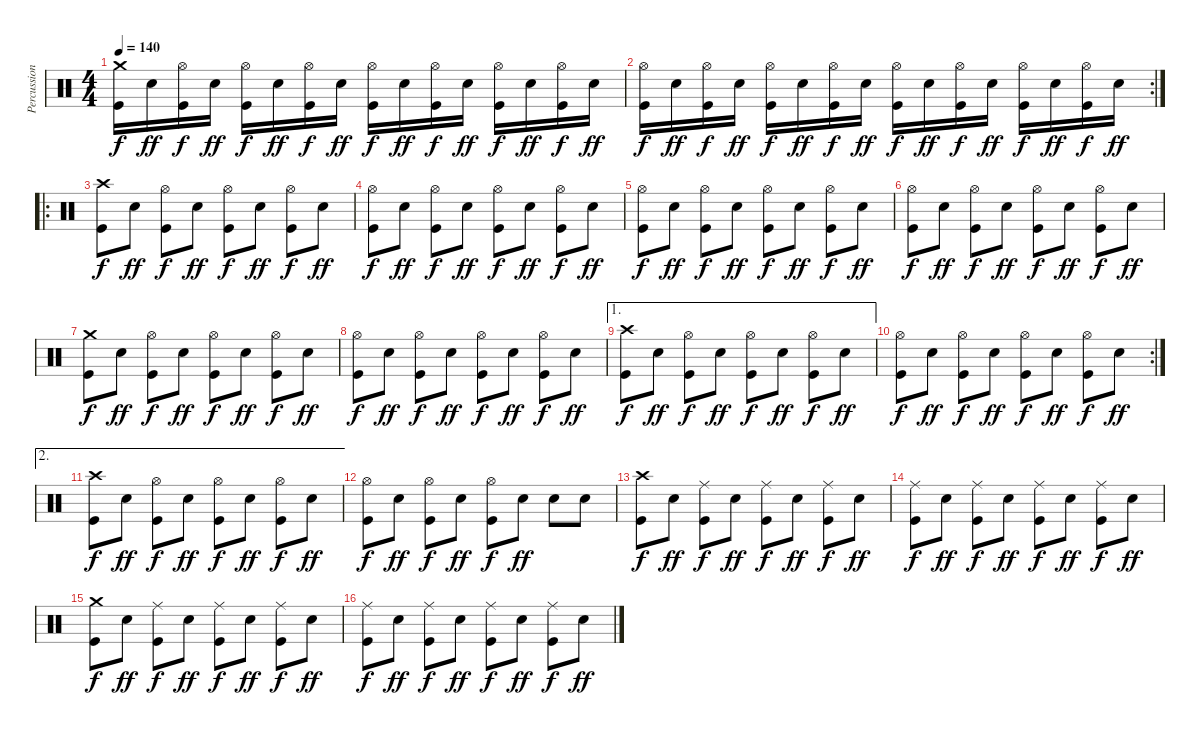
\track ("Percussions" "Percussion") {instrument percussion}
\staff {score}
\articulation defaults
\ts (4 4)
\tempo 140
\clef neutral
\ks c
("Crash medium (hit)" "Kick (hit)").16{dy f} "Snare (hit) 2".16{dy ff} ("Hi-Hat (open)" "Kick (hit)").16{dy f} "Snare (hit) 2".16{dy ff} ("Hi-Hat (open)" "Kick (hit)").16{dy f} "Snare (hit) 2".16{dy ff} ("Hi-Hat (open)" "Kick (hit)").16{dy f} "Snare (hit) 2".16{dy ff} ("Hi-Hat (open)" "Kick (hit)").16{dy f} "Snare (hit) 2".16{dy ff} ("Hi-Hat (open)" "Kick (hit)").16{dy f} "Snare (hit) 2".16{dy ff} ("Hi-Hat (open)" "Kick (hit)").16{dy f} "Snare (hit) 2".16{dy ff} ("Hi-Hat (open)" "Kick (hit)").16{dy f} "Snare (hit) 2".16{dy ff} |
\rc 2
("Hi-Hat (open)" "Kick (hit)").16{dy f} "Snare (hit) 2".16{dy ff} ("Hi-Hat (open)" "Kick (hit)").16{dy f} "Snare (hit) 2".16{dy ff} ("Hi-Hat (open)" "Kick (hit)").16{dy f} "Snare (hit) 2".16{dy ff} ("Hi-Hat (open)" "Kick (hit)").16{dy f} "Snare (hit) 2".16{dy ff} ("Hi-Hat (open)" "Kick (hit)").16{dy f} "Snare (hit) 2".16{dy ff} ("Hi-Hat (open)" "Kick (hit)").16{dy f} "Snare (hit) 2".16{dy ff} ("Hi-Hat (open)" "Kick (hit)").16{dy f} "Snare (hit) 2".16{dy ff} ("Hi-Hat (open)" "Kick (hit)").16{dy f} "Snare (hit) 2".16{dy ff} |
\ro
("Crash high (hit)" "Kick (hit)").8{dy f} "Snare (hit) 2".8{dy ff} ("Hi-Hat (open)" "Kick (hit)").8{dy f} "Snare (hit) 2".8{dy ff} ("Hi-Hat (open)" "Kick (hit)").8{dy f} "Snare (hit) 2".8{dy ff} ("Hi-Hat (open)" "Kick (hit)").8{dy f} "Snare (hit) 2".8{dy ff} |
("Hi-Hat (open)" "Kick (hit)").8{dy f} "Snare (hit) 2".8{dy ff} ("Hi-Hat (open)" "Kick (hit)").8{dy f} "Snare (hit) 2".8{dy ff} ("Hi-Hat (open)" "Kick (hit)").8{dy f} "Snare (hit) 2".8{dy ff} ("Hi-Hat (open)" "Kick (hit)").8{dy f} "Snare (hit) 2".8{dy ff} |
("Hi-Hat (open)" "Kick (hit)").8{dy f} "Snare (hit) 2".8{dy ff} ("Hi-Hat (open)" "Kick (hit)").8{dy f} "Snare (hit) 2".8{dy ff} ("Hi-Hat (open)" "Kick (hit)").8{dy f} "Snare (hit) 2".8{dy ff} ("Hi-Hat (open)" "Kick (hit)").8{dy f} "Snare (hit) 2".8{dy ff} |
("Hi-Hat (open)" "Kick (hit)").8{dy f} "Snare (hit) 2".8{dy ff} ("Hi-Hat (open)" "Kick (hit)").8{dy f} "Snare (hit) 2".8{dy ff} ("Hi-Hat (open)" "Kick (hit)").8{dy f} "Snare (hit) 2".8{dy ff} ("Hi-Hat (open)" "Kick (hit)").8{dy f} "Snare (hit) 2".8{dy ff} |
("Crash medium (hit)" "Kick (hit)").8{dy f} "Snare (hit) 2".8{dy ff} ("Hi-Hat (open)" "Kick (hit)").8{dy f} "Snare (hit) 2".8{dy ff} ("Hi-Hat (open)" "Kick (hit)").8{dy f} "Snare (hit) 2".8{dy ff} ("Hi-Hat (open)" "Kick (hit)").8{dy f} "Snare (hit) 2".8{dy ff} |
("Hi-Hat (open)" "Kick (hit)").8{dy f} "Snare (hit) 2".8{dy ff} ("Hi-Hat (open)" "Kick (hit)").8{dy f} "Snare (hit) 2".8{dy ff} ("Hi-Hat (open)" "Kick (hit)").8{dy f} "Snare (hit) 2".8{dy ff} ("Hi-Hat (open)" "Kick (hit)").8{dy f} "Snare (hit) 2".8{dy ff} |
\ae 1
("Crash high (hit)" "Kick (hit)").8{dy f} "Snare (hit) 2".8{dy ff} ("Hi-Hat (open)" "Kick (hit)").8{dy f} "Snare (hit) 2".8{dy ff} ("Hi-Hat (open)" "Kick (hit)").8{dy f} "Snare (hit) 2".8{dy ff} ("Hi-Hat (open)" "Kick (hit)").8{dy f} "Snare (hit) 2".8{dy ff} |
\rc 2
("Hi-Hat (open)" "Kick (hit)").8{dy f} "Snare (hit) 2".8{dy ff} ("Hi-Hat (open)" "Kick (hit)").8{dy f} "Snare (hit) 2".8{dy ff} ("Hi-Hat (open)" "Kick (hit)").8{dy f} "Snare (hit) 2".8{dy ff} ("Hi-Hat (open)" "Kick (hit)").8{dy f} "Snare (hit) 2".8{dy ff} |
\ae 2
("Crash high (hit)" "Kick (hit)").8{dy f} "Snare (hit) 2".8{dy ff} ("Hi-Hat (open)" "Kick (hit)").8{dy f} "Snare (hit) 2".8{dy ff} ("Hi-Hat (open)" "Kick (hit)").8{dy f} "Snare (hit) 2".8{dy ff} ("Hi-Hat (open)" "Kick (hit)").8{dy f} "Snare (hit) 2".8{dy ff} |
("Hi-Hat (open)" "Kick (hit)").8{dy f} "Snare (hit) 2".8{dy ff} ("Hi-Hat (open)" "Kick (hit)").8{dy f} "Snare (hit) 2".8{dy ff} ("Hi-Hat (open)" "Kick (hit)").8{dy f} "Snare (hit) 2".8{dy ff} "Snare (hit) 2".8 "Snare (hit) 2".8 |
("Crash high (hit)" "Kick (hit)").8{dy f} "Snare (hit) 2".8{dy ff} ("Ride (middle)" "Kick (hit)").8{dy f} "Snare (hit) 2".8{dy ff} ("Ride (middle)" "Kick (hit)").8{dy f} "Snare (hit) 2".8{dy ff} ("Ride (middle)" "Kick (hit)").8{dy f} "Snare (hit) 2".8{dy ff} |
("Ride (middle)" "Kick (hit)").8{dy f} "Snare (hit) 2".8{dy ff} ("Ride (middle)" "Kick (hit)").8{dy f} "Snare (hit) 2".8{dy ff} ("Ride (middle)" "Kick (hit)").8{dy f} "Snare (hit) 2".8{dy ff} ("Ride (middle)" "Kick (hit)").8{dy f} "Snare (hit) 2".8{dy ff} |
("Crash medium (hit)" "Kick (hit)").8{dy f} "Snare (hit) 2".8{dy ff} ("Ride (middle)" "Kick (hit)").8{dy f} "Snare (hit) 2".8{dy ff} ("Ride (middle)" "Kick (hit)").8{dy f} "Snare (hit) 2".8{dy ff} ("Ride (middle)" "Kick (hit)").8{dy f} "Snare (hit) 2".8{dy ff} |
("Ride (middle)" "Kick (hit)").8{dy f} "Snare (hit) 2".8{dy ff} ("Ride (middle)" "Kick (hit)").8{dy f} "Snare (hit) 2".8{dy ff} ("Ride (middle)" "Kick (hit)").8{dy f} "Snare (hit) 2".8{dy ff} ("Ride (middle)" "Kick (hit)").8{dy f} "Snare (hit) 2".8{dy ff}
